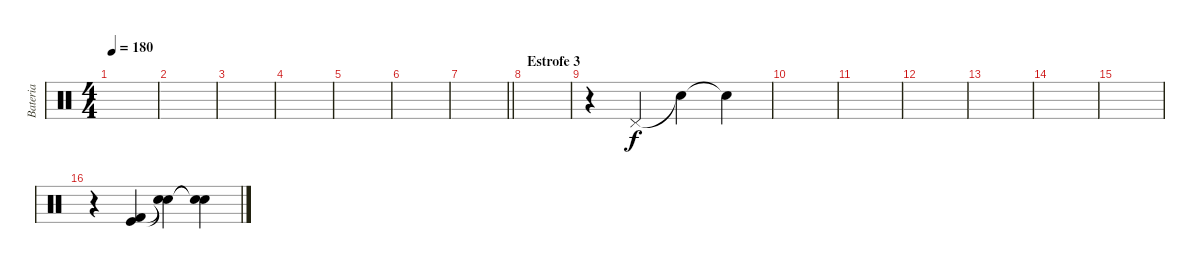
\track ("Bateria" "Bateria") {instrument percussion}
\staff {score}
\articulation defaults
\ts (4 4)
\tempo 180
\clef neutral
\ks c
|
|
|
|
|
|
\barLineRight lightlight
|
\section ("" "Estrofe 3")
|
r.4 "Pedal Hi-Hat (hit)".4 "Snare (hit)"{t}.4 "Snare (hit)"{t}.4 |
|
|
|
|
|
|
r.4 ("Kick (hit) 2" "Kick (hit)").4 ("Snare (hit)"{t} "Snare (hit)"{t}).4 ("Snare (hit)"{t} "Snare (hit)"{t}).4
